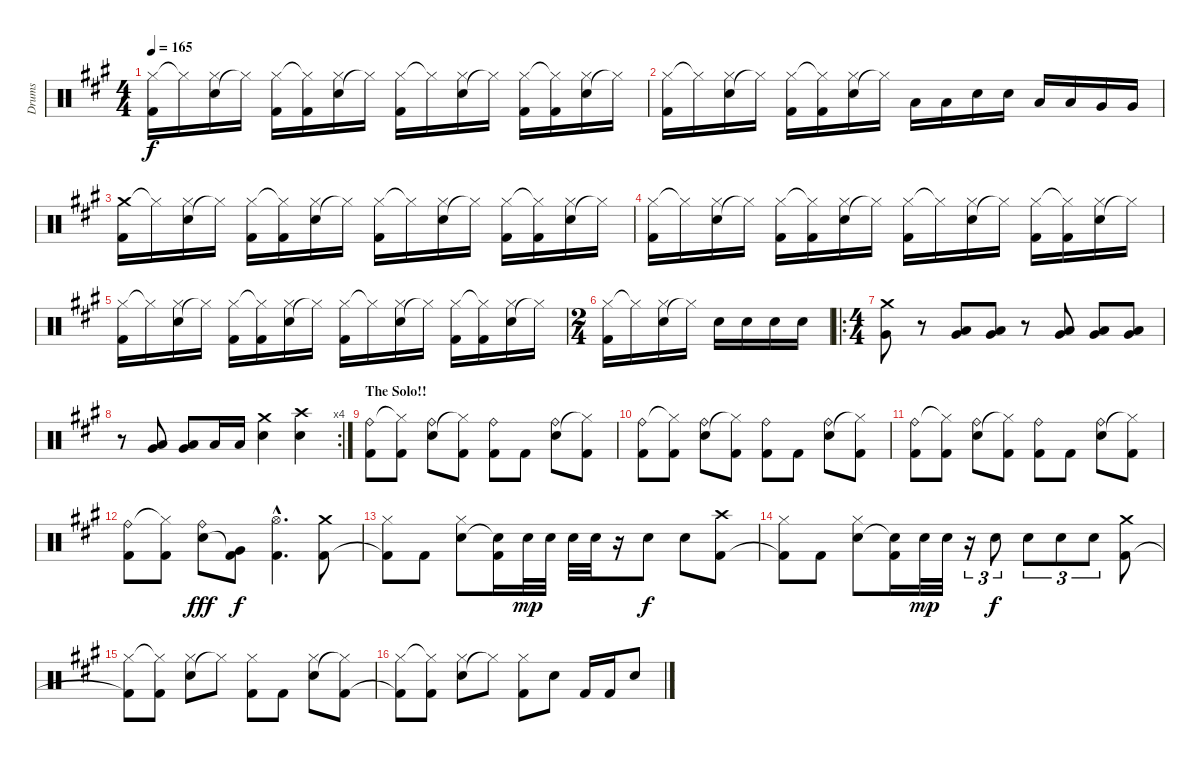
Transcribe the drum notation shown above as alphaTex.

\track ("Drums" "Drums") {instrument percussion}
\staff {score}
\articulation defaults
\ts (4 4)
\tempo 165
\clef neutral
\ks a
("Hi-Hat (closed)" "Kick (hit) 2").16{dy f} "Hi-Hat (closed)"{t}.16 ("Electric Snare (hit)" "Hi-Hat (closed)").16 "Hi-Hat (closed)"{t}.16 ("Hi-Hat (closed)" "Kick (hit) 2").16 ("Hi-Hat (closed)"{t} "Kick (hit) 2").16 ("Electric Snare (hit)" "Hi-Hat (closed)").16 "Hi-Hat (closed)"{t}.16 ("Hi-Hat (closed)" "Kick (hit) 2").16 "Hi-Hat (closed)"{t}.16 ("Electric Snare (hit)" "Hi-Hat (closed)").16 "Hi-Hat (closed)"{t}.16 ("Hi-Hat (closed)" "Kick (hit) 2").16 ("Hi-Hat (closed)"{t} "Kick (hit) 2").16 ("Electric Snare (hit)" "Hi-Hat (closed)").16 "Hi-Hat (closed)"{t}.16 |
("Hi-Hat (closed)" "Kick (hit) 2").16 "Hi-Hat (closed)"{t}.16 ("Electric Snare (hit)" "Hi-Hat (closed)").16 "Hi-Hat (closed)"{t}.16 ("Hi-Hat (closed)" "Kick (hit) 2").16 ("Hi-Hat (closed)"{t} "Kick (hit) 2").16 ("Electric Snare (hit)" "Hi-Hat (closed)").16 "Hi-Hat (closed)"{t}.16 "Low Tom (hit)".16 "Low Tom (hit)".16 "Electric Snare (hit)".16 "Electric Snare (hit)".16 "Low Tom (hit)".16 "Low Tom (hit)".16 "Very Low Tom (hit)".16 "Very Low Tom (hit)".16 |
("Crash medium (hit)" "Kick (hit) 2").16 "Hi-Hat (closed)"{t}.16 ("Electric Snare (hit)" "Hi-Hat (closed)").16 "Hi-Hat (closed)"{t}.16 ("Hi-Hat (closed)" "Kick (hit) 2").16 ("Hi-Hat (closed)"{t} "Kick (hit) 2").16 ("Electric Snare (hit)" "Hi-Hat (closed)").16 "Hi-Hat (closed)"{t}.16 ("Hi-Hat (closed)" "Kick (hit) 2").16 "Hi-Hat (closed)"{t}.16 ("Electric Snare (hit)" "Hi-Hat (closed)").16 "Hi-Hat (closed)"{t}.16 ("Hi-Hat (closed)" "Kick (hit) 2").16 ("Hi-Hat (closed)"{t} "Kick (hit) 2").16 ("Electric Snare (hit)" "Hi-Hat (closed)").16 "Hi-Hat (closed)"{t}.16 |
("Hi-Hat (closed)" "Kick (hit) 2").16 "Hi-Hat (closed)"{t}.16 ("Electric Snare (hit)" "Hi-Hat (closed)").16 "Hi-Hat (closed)"{t}.16 ("Hi-Hat (closed)" "Kick (hit) 2").16 ("Hi-Hat (closed)"{t} "Kick (hit) 2").16 ("Electric Snare (hit)" "Hi-Hat (closed)").16 "Hi-Hat (closed)"{t}.16 ("Hi-Hat (closed)" "Kick (hit) 2").16 "Hi-Hat (closed)"{t}.16 ("Electric Snare (hit)" "Hi-Hat (closed)").16 "Hi-Hat (closed)"{t}.16 ("Hi-Hat (closed)" "Kick (hit) 2").16 ("Hi-Hat (closed)"{t} "Kick (hit) 2").16 ("Electric Snare (hit)" "Hi-Hat (closed)").16 "Hi-Hat (closed)"{t}.16 |
("Hi-Hat (closed)" "Kick (hit) 2").16 "Hi-Hat (closed)"{t}.16 ("Electric Snare (hit)" "Hi-Hat (closed)").16 "Hi-Hat (closed)"{t}.16 ("Hi-Hat (closed)" "Kick (hit) 2").16 ("Hi-Hat (closed)"{t} "Kick (hit) 2").16 ("Electric Snare (hit)" "Hi-Hat (closed)").16 "Hi-Hat (closed)"{t}.16 ("Hi-Hat (closed)" "Kick (hit) 2").16 "Hi-Hat (closed)"{t}.16 ("Electric Snare (hit)" "Hi-Hat (closed)").16 "Hi-Hat (closed)"{t}.16 ("Hi-Hat (closed)" "Kick (hit) 2").16 ("Hi-Hat (closed)"{t} "Kick (hit) 2").16 ("Electric Snare (hit)" "Hi-Hat (closed)").16 "Hi-Hat (closed)"{t}.16 |
\ts (2 4)
("Hi-Hat (closed)" "Kick (hit) 2").16 "Hi-Hat (closed)"{t}.16 ("Electric Snare (hit)" "Hi-Hat (closed)").16 "Hi-Hat (closed)"{t}.16 "Electric Snare (hit)".16 "Electric Snare (hit)".16 "Electric Snare (hit)".16 "Electric Snare (hit)".16 |
\ro
\ts (4 4)
("Crash medium (hit)" "Very Low Tom (hit)").8 r.8 ("Low Tom (hit)" "Very Low Tom (hit)").8 ("Low Tom (hit)" "Very Low Tom (hit)").8 r.8 ("Low Tom (hit)" "Very Low Tom (hit)").8 ("Low Tom (hit)" "Very Low Tom (hit)").8 ("Low Tom (hit)" "Very Low Tom (hit)").8 |
\rc 4
r.8 ("Low Tom (hit)" "Very Low Tom (hit)").8 ("Low Tom (hit)" "Very Low Tom (hit)").8 "Low Tom (hit)".16 "Low Tom (hit)".16 ("Crash medium (hit)" "Electric Snare (hit)").4 ("Crash high (hit)" "Electric Snare (hit)").4 |
\section ("" "The Solo!!")
("Ride (bell)" "Kick (hit) 2").8 ("Hi-Hat (closed)"{t} "Kick (hit) 2").8 ("Electric Snare (hit)" "Ride (bell)").8 ("Hi-Hat (closed)"{t} "Kick (hit) 2").8 ("Ride (bell)" "Kick (hit) 2").8 "Kick (hit) 2".8 ("Electric Snare (hit)" "Ride (bell)").8 ("Hi-Hat (closed)"{t} "Kick (hit) 2").8 |
("Ride (bell)" "Kick (hit) 2").8 ("Hi-Hat (closed)"{t} "Kick (hit) 2").8 ("Electric Snare (hit)" "Ride (bell)").8 ("Hi-Hat (closed)"{t} "Kick (hit) 2").8 ("Ride (bell)" "Kick (hit) 2").8 "Kick (hit) 2".8 ("Electric Snare (hit)" "Ride (bell)").8 ("Hi-Hat (closed)"{t} "Kick (hit) 2").8 |
("Ride (bell)" "Kick (hit) 2").8 ("Hi-Hat (closed)"{t} "Kick (hit) 2").8 ("Electric Snare (hit)" "Ride (bell)").8 ("Hi-Hat (closed)"{t} "Kick (hit) 2").8 ("Ride (bell)" "Kick (hit) 2").8 "Kick (hit) 2".8 ("Electric Snare (hit)" "Ride (bell)").8 ("Hi-Hat (closed)"{t} "Kick (hit) 2").8 |
("Ride (bell)" "Kick (hit) 2").8 ("Hi-Hat (closed)"{t} "Kick (hit) 2").8 ("Electric Snare (hit)" "Ride (bell)").8{dy fff} ("Very Low Tom (hit)"{t} "Kick (hit) 2").8{dy f} ("Hi-Hat (open)"{hac} "Kick (hit) 2"{hac}).4{d} ("Crash medium (hit)" "Kick (hit) 2").8 |
("Hi-Hat (closed)" "Kick (hit) 2"{t}).8 "Kick (hit) 2".8 ("Electric Snare (hit)" "Hi-Hat (closed)").8 ("Snare (hit)"{t} "Kick (hit) 2").16 "Electric Snare (hit)".32{dy mp} "Electric Snare (hit)".32 "Electric Snare (hit)".32 "Electric Snare (hit)".32 r.16 "Electric Snare (hit)".8{dy f} "Electric Snare (hit)".8 ("Crash high (hit)" "Kick (hit) 2").8 |
("Hi-Hat (closed)" "Kick (hit) 2"{t}).8 "Kick (hit) 2".8 ("Electric Snare (hit)" "Hi-Hat (closed)").8 ("Snare (hit)"{t} "Kick (hit) 2").16 "Electric Snare (hit)".32{dy mp} "Electric Snare (hit)".32 r.16{tu (3 2)} "Electric Snare (hit)".8{tu (3 2) dy f} "Electric Snare (hit)".8{tu (3 2)} "Electric Snare (hit)".8{tu (3 2)} "Electric Snare (hit)".8{tu (3 2)} ("Crash medium (hit)" "Kick (hit) 2").8 |
("Hi-Hat (closed)" "Kick (hit) 2"{t}).8 ("Hi-Hat (closed)"{t} "Kick (hit) 2").8 ("Electric Snare (hit)" "Hi-Hat (closed)").8 "Hi-Hat (closed)"{t}.8 ("Hi-Hat (closed)" "Kick (hit) 2").8 "Kick (hit) 2".8 ("Electric Snare (hit)" "Hi-Hat (closed)").8 ("Hi-Hat (closed)"{t} "Kick (hit) 2").8 |
("Hi-Hat (closed)" "Kick (hit) 2"{t}).8 ("Hi-Hat (closed)"{t} "Kick (hit) 2").8 ("Electric Snare (hit)" "Hi-Hat (closed)").8 "Hi-Hat (closed)"{t}.8 ("Hi-Hat (closed)" "Kick (hit) 2").8 "Electric Snare (hit)".8 "Kick (hit) 2".16 "Kick (hit) 2".16 "Electric Snare (hit)".8
